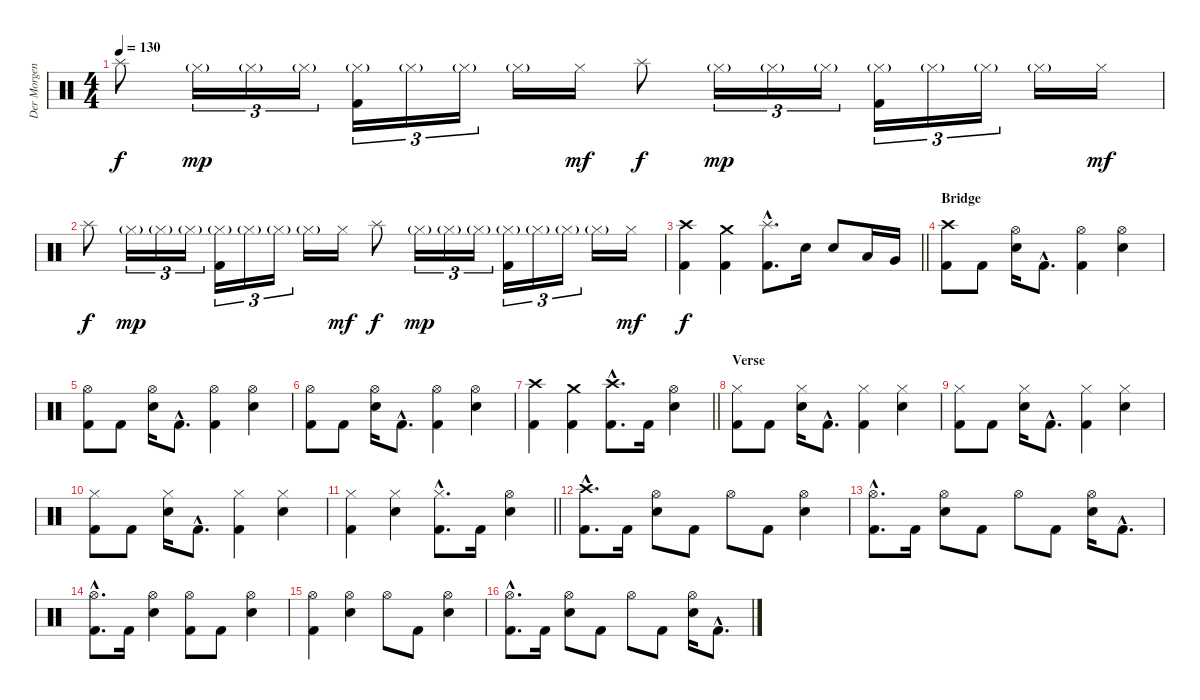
\track ("Der Morgenstern" "Der Morgen") {instrument percussion}
\staff {score}
\articulation defaults
\ts (4 4)
\tempo 130
\clef neutral
\ks c "Splash (hit)".8{dy f} "Hi-Hat (closed)"{g}.16{tu (3 2) dy mp} "Hi-Hat (closed)"{g}.16{tu (3 2)} "Hi-Hat (closed)"{g}.16{tu (3 2)}
("Hi-Hat (closed)"{g} "Kick (hit) 2").16{tu (3 2)} "Hi-Hat (closed)"{g}.16{tu (3 2)} "Hi-Hat (closed)"{g}.16{tu (3 2)} "Hi-Hat (closed)"{g}.16 "Hi-Hat (closed)".16{dy mf} "Splash (hit)".8{dy f} "Hi-Hat (closed)"{g}.16{tu (3 2) dy mp} "Hi-Hat (closed)"{g}.16{tu (3 2)} "Hi-Hat (closed)"{g}.16{tu (3 2)} ("Hi-Hat (closed)"{g} "Kick (hit) 2").16{tu (3 2)} "Hi-Hat (closed)"{g}.16{tu (3 2)} "Hi-Hat (closed)"{g}.16{tu (3 2)} "Hi-Hat (closed)"{g}.16 "Hi-Hat (closed)".16{dy mf} |
"Splash (hit)".8{dy f} "Hi-Hat (closed)"{g}.16{tu (3 2) dy mp} "Hi-Hat (closed)"{g}.16{tu (3 2)} "Hi-Hat (closed)"{g}.16{tu (3 2)} ("Hi-Hat (closed)"{g} "Kick (hit) 2").16{tu (3 2)} "Hi-Hat (closed)"{g}.16{tu (3 2)} "Hi-Hat (closed)"{g}.16{tu (3 2)} "Hi-Hat (closed)"{g}.16 "Hi-Hat (closed)".16{dy mf} "Splash (hit)".8{dy f} "Hi-Hat (closed)"{g}.16{tu (3 2) dy mp} "Hi-Hat (closed)"{g}.16{tu (3 2)} "Hi-Hat (closed)"{g}.16{tu (3 2)} ("Hi-Hat (closed)"{g} "Kick (hit) 2").16{tu (3 2)} "Hi-Hat (closed)"{g}.16{tu (3 2)} "Hi-Hat (closed)"{g}.16{tu (3 2)} "Hi-Hat (closed)"{g}.16 "Hi-Hat (closed)".16{dy mf} |
\barLineRight lightlight
("Crash high (hit)" "Kick (hit) 2").4{dy f} ("Crash medium (hit)" "Kick (hit) 2").4 ("Splash (hit)"{hac} "Kick (hit) 2"{hac}).8{d} "Electric Snare (hit)".16 "Electric Snare (hit)".8 "Low Tom (hit)".16 "Very Low Tom (hit)".16 |
\section ("" "Bridge")
("Crash high (hit)" "Kick (hit) 2").8 "Kick (hit) 2".8 ("Hi-Hat (open)" "Electric Snare (hit)").16 "Kick (hit) 2"{hac}.8{d} ("Hi-Hat (open)" "Kick (hit) 2").4 ("Hi-Hat (open)" "Electric Snare (hit)").4 |
("Hi-Hat (open)" "Kick (hit) 2").8 "Kick (hit) 2".8 ("Hi-Hat (open)" "Electric Snare (hit)").16 "Kick (hit) 2"{hac}.8{d} ("Hi-Hat (open)" "Kick (hit) 2").4 ("Hi-Hat (open)" "Electric Snare (hit)").4 |
("Hi-Hat (open)" "Kick (hit) 2").8 "Kick (hit) 2".8 ("Hi-Hat (open)" "Electric Snare (hit)").16 "Kick (hit) 2"{hac}.8{d} ("Hi-Hat (open)" "Kick (hit) 2").4 ("Hi-Hat (open)" "Electric Snare (hit)").4 |
\barLineRight lightlight
("Crash high (hit)" "Kick (hit) 2").4 ("Crash medium (hit)" "Kick (hit) 2").4 ("Crash high (hit)"{hac} "Kick (hit) 2"{hac}).8{d} "Kick (hit) 2".16 ("Hi-Hat (open)" "Electric Snare (hit)").4 |
\section ("" "Verse")
("Hi-Hat (closed)" "Kick (hit) 2").8 "Kick (hit) 2".8 ("Hi-Hat (closed)" "Electric Snare (hit)").16 "Kick (hit) 2"{hac}.8{d} ("Hi-Hat (closed)" "Kick (hit) 2").4 ("Hi-Hat (closed)" "Electric Snare (hit)").4 |
("Hi-Hat (closed)" "Kick (hit) 2").8 "Kick (hit) 2".8 ("Hi-Hat (closed)" "Electric Snare (hit)").16 "Kick (hit) 2"{hac}.8{d} ("Hi-Hat (closed)" "Kick (hit) 2").4 ("Hi-Hat (closed)" "Electric Snare (hit)").4 |
("Hi-Hat (closed)" "Kick (hit) 2").8 "Kick (hit) 2".8 ("Hi-Hat (closed)" "Electric Snare (hit)").16 "Kick (hit) 2"{hac}.8{d} ("Hi-Hat (closed)" "Kick (hit) 2").4 ("Hi-Hat (closed)" "Electric Snare (hit)").4 |
\barLineRight lightlight
("Hi-Hat (closed)" "Kick (hit) 2").4 ("Hi-Hat (closed)" "Electric Snare (hit)").4 ("Hi-Hat (closed)"{hac} "Kick (hit) 2"{hac}).8{d} "Kick (hit) 2".16 ("Hi-Hat (open)" "Electric Snare (hit)").4 |
("Crash high (hit)"{hac} "Kick (hit) 2"{hac}).8{d} "Kick (hit) 2".16 ("Hi-Hat (open)" "Electric Snare (hit)").8 "Kick (hit) 2".8 "Hi-Hat (open)".8 "Kick (hit) 2".8 ("Hi-Hat (open)" "Electric Snare (hit)").4 |
("Hi-Hat (open)"{hac} "Kick (hit) 2"{hac}).8{d} "Kick (hit) 2".16 ("Hi-Hat (open)" "Electric Snare (hit)").8 "Kick (hit) 2".8 "Hi-Hat (open)".8 "Kick (hit) 2".8 ("Hi-Hat (open)" "Electric Snare (hit)").16 "Kick (hit) 2"{hac}.8{d} |
("Hi-Hat (open)"{hac} "Kick (hit) 2"{hac}).8{d} "Kick (hit) 2".16 ("Hi-Hat (open)" "Electric Snare (hit)").4 ("Hi-Hat (open)" "Kick (hit) 2").8 "Kick (hit) 2".8 ("Hi-Hat (open)" "Electric Snare (hit)").4 |
("Hi-Hat (open)" "Kick (hit) 2").4 ("Hi-Hat (open)" "Electric Snare (hit)").4 "Hi-Hat (open)".8 "Kick (hit) 2".8 ("Hi-Hat (open)" "Electric Snare (hit)").4 |
("Hi-Hat (open)"{hac} "Kick (hit) 2"{hac}).8{d} "Kick (hit) 2".16 ("Hi-Hat (open)" "Electric Snare (hit)").8 "Kick (hit) 2".8 "Hi-Hat (open)".8 "Kick (hit) 2".8 ("Hi-Hat (open)" "Electric Snare (hit)").16 "Kick (hit) 2"{hac}.8{d}
